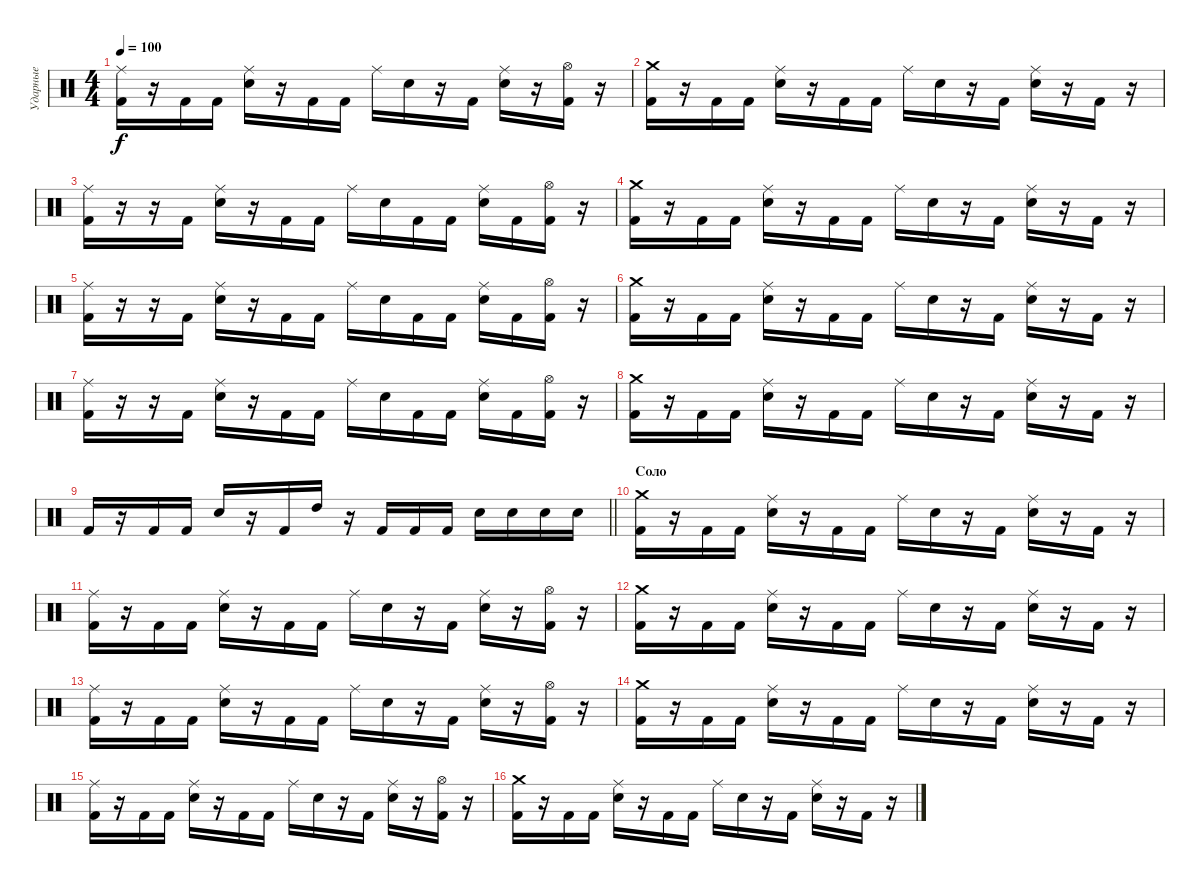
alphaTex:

\track ("Ударные" "Ударные") {instrument percussion}
\staff {score}
\articulation defaults
\ts (4 4)
\tempo 100
\clef neutral
\ks c
("Kick (hit) 2" "Ride (middle)").16{dy f} r.16 "Kick (hit) 2".16 "Kick (hit) 2".16 ("Electric Snare (hit)" "Ride (middle)").16 r.16 "Kick (hit) 2".16 "Kick (hit) 2".16 "Ride (middle)".16 "Electric Snare (hit)".16 r.16 "Kick (hit) 2".16 ("Electric Snare (hit)" "Ride (middle)").16 r.16 ("Kick (hit) 2" "Hi-Hat (open)").16 r.16 |
("Kick (hit) 2" "Crash medium (hit)").16 r.16 "Kick (hit) 2".16 "Kick (hit) 2".16 ("Electric Snare (hit)" "Ride (middle)").16 r.16 "Kick (hit) 2".16 "Kick (hit) 2".16 "Ride (middle)".16 "Electric Snare (hit)".16 r.16 "Kick (hit) 2".16 ("Electric Snare (hit)" "Ride (middle)").16 r.16 "Kick (hit) 2".16 r.16 |
("Kick (hit) 2" "Ride (middle)").16 r.16 r.16 "Kick (hit) 2".16 ("Electric Snare (hit)" "Ride (middle)").16 r.16 "Kick (hit) 2".16 "Kick (hit) 2".16 "Ride (middle)".16 "Electric Snare (hit)".16 "Kick (hit) 2".16 "Kick (hit) 2".16 ("Electric Snare (hit)" "Ride (middle)").16 "Kick (hit) 2".16 ("Kick (hit) 2" "Hi-Hat (open)").16 r.16 |
("Kick (hit) 2" "Crash medium (hit)").16 r.16 "Kick (hit) 2".16 "Kick (hit) 2".16 ("Electric Snare (hit)" "Ride (middle)").16 r.16 "Kick (hit) 2".16 "Kick (hit) 2".16 "Ride (middle)".16 "Electric Snare (hit)".16 r.16 "Kick (hit) 2".16 ("Electric Snare (hit)" "Ride (middle)").16 r.16 "Kick (hit) 2".16 r.16 |
("Kick (hit) 2" "Ride (middle)").16 r.16 r.16 "Kick (hit) 2".16 ("Electric Snare (hit)" "Ride (middle)").16 r.16 "Kick (hit) 2".16 "Kick (hit) 2".16 "Ride (middle)".16 "Electric Snare (hit)".16 "Kick (hit) 2".16 "Kick (hit) 2".16 ("Electric Snare (hit)" "Ride (middle)").16 "Kick (hit) 2".16 ("Kick (hit) 2" "Hi-Hat (open)").16 r.16 |
("Kick (hit) 2" "Crash medium (hit)").16 r.16 "Kick (hit) 2".16 "Kick (hit) 2".16 ("Electric Snare (hit)" "Ride (middle)").16 r.16 "Kick (hit) 2".16 "Kick (hit) 2".16 "Ride (middle)".16 "Electric Snare (hit)".16 r.16 "Kick (hit) 2".16 ("Electric Snare (hit)" "Ride (middle)").16 r.16 "Kick (hit) 2".16 r.16 |
("Kick (hit) 2" "Ride (middle)").16 r.16 r.16 "Kick (hit) 2".16 ("Electric Snare (hit)" "Ride (middle)").16 r.16 "Kick (hit) 2".16 "Kick (hit) 2".16 "Ride (middle)".16 "Electric Snare (hit)".16 "Kick (hit) 2".16 "Kick (hit) 2".16 ("Electric Snare (hit)" "Ride (middle)").16 "Kick (hit) 2".16 ("Kick (hit) 2" "Hi-Hat (open)").16 r.16 |
("Kick (hit) 2" "Crash medium (hit)").16 r.16 "Kick (hit) 2".16 "Kick (hit) 2".16 ("Electric Snare (hit)" "Ride (middle)").16 r.16 "Kick (hit) 2".16 "Kick (hit) 2".16 "Ride (middle)".16 "Electric Snare (hit)".16 r.16 "Kick (hit) 2".16 ("Electric Snare (hit)" "Ride (middle)").16 r.16 "Kick (hit) 2".16 r.16 |
\barLineRight lightlight "Kick (hit) 2".16
r.16 "Kick (hit) 2".16 "Kick (hit) 2".16 "Electric Snare (hit)".16 r.16 "Kick (hit) 2".16 "High Tom (hit)".16 r.16 "Kick (hit) 2".16 "Kick (hit) 2".16 "Kick (hit) 2".16 "Electric Snare (hit)".16 "Electric Snare (hit)".16 "Electric Snare (hit)".16 "Electric Snare (hit)".16 |
\section ("" "Соло")
("Kick (hit) 2" "Crash medium (hit)").16 r.16 "Kick (hit) 2".16 "Kick (hit) 2".16 ("Electric Snare (hit)" "Ride (middle)").16 r.16 "Kick (hit) 2".16 "Kick (hit) 2".16 "Ride (middle)".16 "Electric Snare (hit)".16 r.16 "Kick (hit) 2".16 ("Electric Snare (hit)" "Ride (middle)").16 r.16 "Kick (hit) 2".16 r.16 |
("Kick (hit) 2" "Ride (middle)").16 r.16 "Kick (hit) 2".16 "Kick (hit) 2".16 ("Electric Snare (hit)" "Ride (middle)").16 r.16 "Kick (hit) 2".16 "Kick (hit) 2".16 "Ride (middle)".16 "Electric Snare (hit)".16 r.16 "Kick (hit) 2".16 ("Electric Snare (hit)" "Ride (middle)").16 r.16 ("Kick (hit) 2" "Hi-Hat (open)").16 r.16 |
("Kick (hit) 2" "Crash medium (hit)").16 r.16 "Kick (hit) 2".16 "Kick (hit) 2".16 ("Electric Snare (hit)" "Ride (middle)").16 r.16 "Kick (hit) 2".16 "Kick (hit) 2".16 "Ride (middle)".16 "Electric Snare (hit)".16 r.16 "Kick (hit) 2".16 ("Electric Snare (hit)" "Ride (middle)").16 r.16 "Kick (hit) 2".16 r.16 |
("Kick (hit) 2" "Ride (middle)").16 r.16 "Kick (hit) 2".16 "Kick (hit) 2".16 ("Electric Snare (hit)" "Ride (middle)").16 r.16 "Kick (hit) 2".16 "Kick (hit) 2".16 "Ride (middle)".16 "Electric Snare (hit)".16 r.16 "Kick (hit) 2".16 ("Electric Snare (hit)" "Ride (middle)").16 r.16 ("Kick (hit) 2" "Hi-Hat (open)").16 r.16 |
("Kick (hit) 2" "Crash medium (hit)").16 r.16 "Kick (hit) 2".16 "Kick (hit) 2".16 ("Electric Snare (hit)" "Ride (middle)").16 r.16 "Kick (hit) 2".16 "Kick (hit) 2".16 "Ride (middle)".16 "Electric Snare (hit)".16 r.16 "Kick (hit) 2".16 ("Electric Snare (hit)" "Ride (middle)").16 r.16 "Kick (hit) 2".16 r.16 |
("Kick (hit) 2" "Ride (middle)").16 r.16 "Kick (hit) 2".16 "Kick (hit) 2".16 ("Electric Snare (hit)" "Ride (middle)").16 r.16 "Kick (hit) 2".16 "Kick (hit) 2".16 "Ride (middle)".16 "Electric Snare (hit)".16 r.16 "Kick (hit) 2".16 ("Electric Snare (hit)" "Ride (middle)").16 r.16 ("Kick (hit) 2" "Hi-Hat (open)").16 r.16 |
("Kick (hit) 2" "Crash medium (hit)").16 r.16 "Kick (hit) 2".16 "Kick (hit) 2".16 ("Electric Snare (hit)" "Ride (middle)").16 r.16 "Kick (hit) 2".16 "Kick (hit) 2".16 "Ride (middle)".16 "Electric Snare (hit)".16 r.16 "Kick (hit) 2".16 ("Electric Snare (hit)" "Ride (middle)").16 r.16 "Kick (hit) 2".16 r.16
